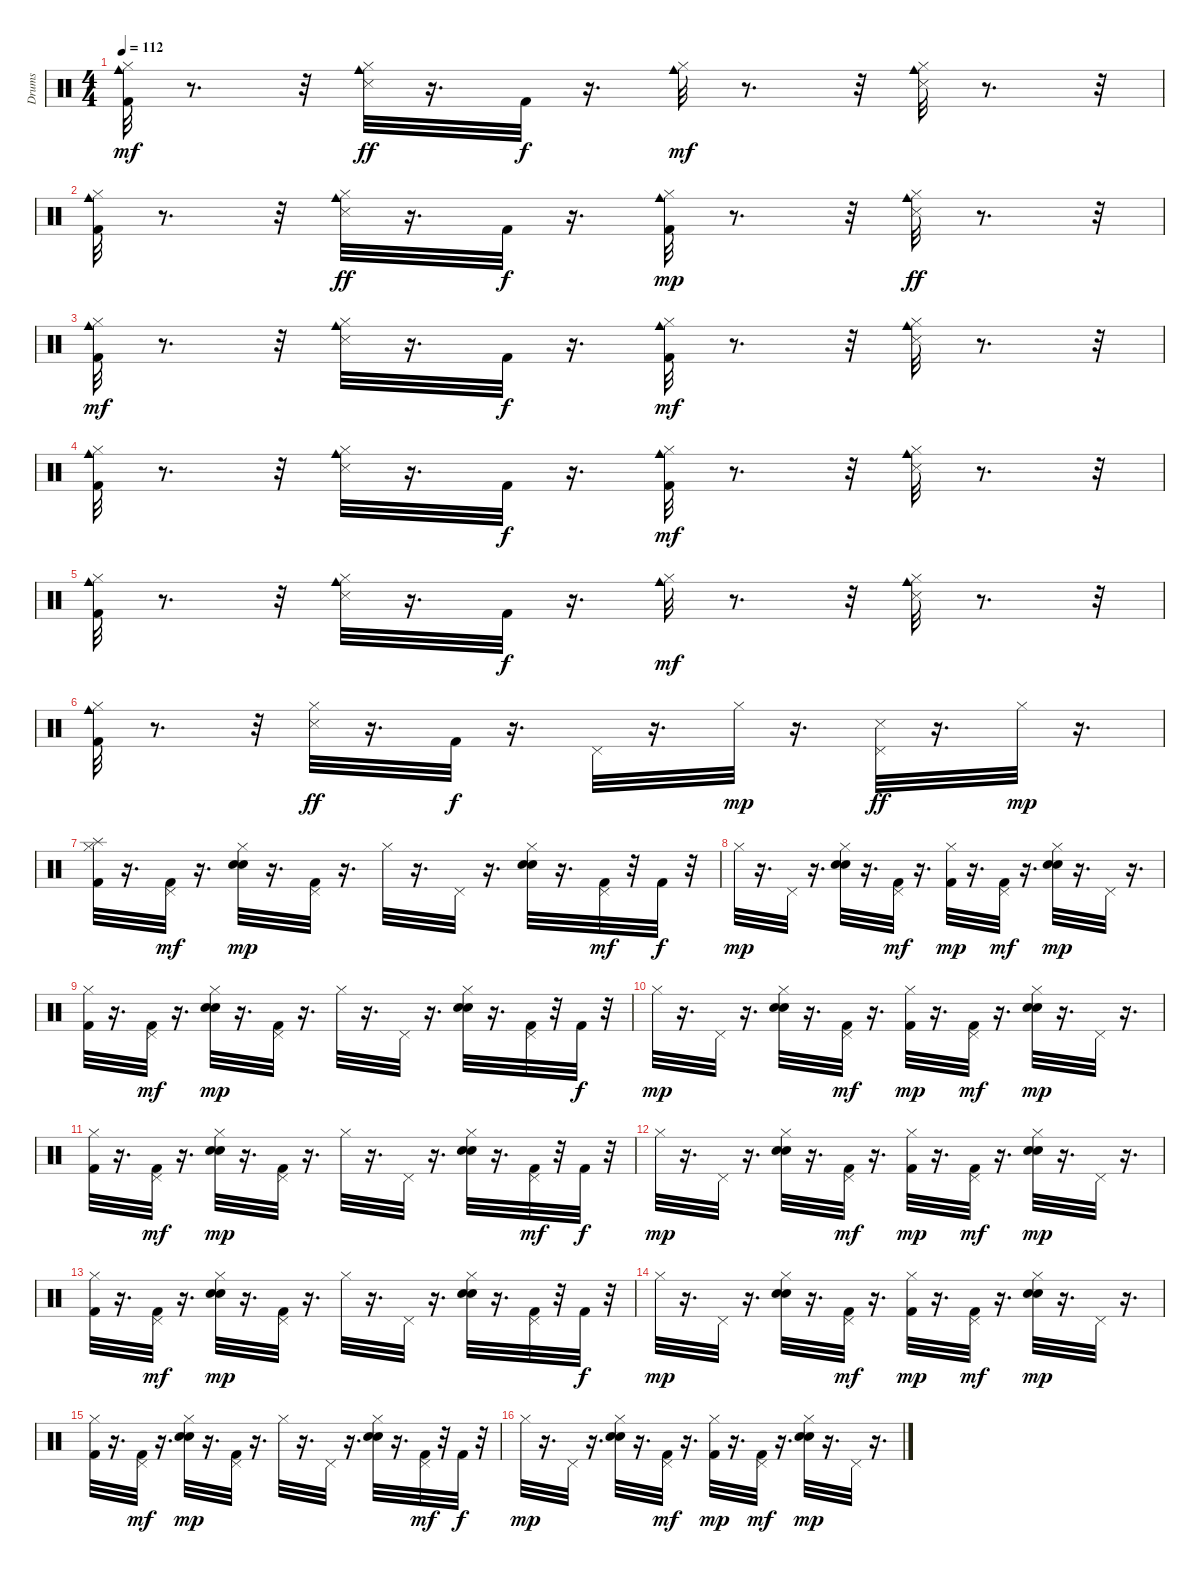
\track ("Drums" "Drums") {instrument percussion}
\staff {score}
\articulation defaults
\ts (4 4)
\tempo 112
\clef neutral
\ks c
("Hi-Hat (closed)" "Kick (hit) 2" "Cowbell medium (hit)").32{dy mf} r.8{d} r.32 ("Hi-Hat (closed)" "Snare (side stick) 3" "Cowbell medium (hit)").32{dy ff} r.16{d} "Kick (hit) 2".32{dy f} r.16{d} ("Hi-Hat (closed)" "Cowbell medium (hit)").32{dy mf} r.8{d} r.32 ("Hi-Hat (closed)" "Snare (side stick) 3" "Cowbell medium (hit)").32 r.8{d} r.32 |
("Hi-Hat (closed)" "Kick (hit) 2" "Cowbell medium (hit)").32 r.8{d} r.32 ("Hi-Hat (closed)" "Snare (side stick) 3" "Cowbell medium (hit)").32{dy ff} r.16{d} "Kick (hit) 2".32{dy f} r.16{d} ("Hi-Hat (closed)" "Kick (hit) 2" "Cowbell medium (hit)").32{dy mp} r.8{d} r.32 ("Hi-Hat (closed)" "Snare (side stick) 3" "Cowbell medium (hit)").32{dy ff} r.8{d} r.32 |
("Hi-Hat (closed)" "Kick (hit) 2" "Cowbell medium (hit)").32{dy mf} r.8{d} r.32 ("Hi-Hat (closed)" "Snare (side stick) 3" "Cowbell medium (hit)").32 r.16{d} "Kick (hit) 2".32{dy f} r.16{d} ("Hi-Hat (closed)" "Kick (hit) 2" "Cowbell medium (hit)").32{dy mf} r.8{d} r.32 ("Hi-Hat (closed)" "Snare (side stick) 3" "Cowbell medium (hit)").32 r.8{d} r.32 |
("Hi-Hat (closed)" "Kick (hit) 2" "Cowbell medium (hit)").32 r.8{d} r.32 ("Hi-Hat (closed)" "Snare (side stick) 3" "Cowbell medium (hit)").32 r.16{d} "Kick (hit) 2".32{dy f} r.16{d} ("Hi-Hat (closed)" "Kick (hit) 2" "Cowbell medium (hit)").32{dy mf} r.8{d} r.32 ("Hi-Hat (closed)" "Snare (side stick) 3" "Cowbell medium (hit)").32 r.8{d} r.32 |
("Hi-Hat (closed)" "Kick (hit) 2" "Cowbell medium (hit)").32 r.8{d} r.32 ("Hi-Hat (closed)" "Snare (side stick) 3" "Cowbell medium (hit)").32 r.16{d} "Kick (hit) 2".32{dy f} r.16{d} ("Hi-Hat (closed)" "Cowbell medium (hit)").32{dy mf} r.8{d} r.32 ("Hi-Hat (closed)" "Snare (side stick) 3" "Cowbell medium (hit)").32 r.8{d} r.32 |
("Hi-Hat (closed)" "Kick (hit) 2" "Cowbell medium (hit)").32 r.8{d} r.32 ("Hi-Hat (closed)" "Snare (side stick) 3").32{dy ff} r.16{d} "Kick (hit) 2".32{dy f} r.16{d} "Pedal Hi-Hat (hit)".32 r.16{d} "Hi-Hat (closed)".32{dy mp} r.16{d} ("Pedal Hi-Hat (hit)" "Snare (side stick) 3").32{dy ff} r.16{d} "Hi-Hat (closed)".32{dy mp} r.16{d} |
("Splash (hit)" "Hi-Hat (closed)" "Kick (hit) 2").32 r.16{d} ("Pedal Hi-Hat (hit)" "Kick (hit) 2").32{dy mf} r.16{d} ("Hi-Hat (closed)" "Electric Snare (hit)" "Hand Clap (hit)").32{dy mp} r.16{d} ("Pedal Hi-Hat (hit)" "Kick (hit) 2").32 r.16{d} "Hi-Hat (closed)".32 r.16{d} "Pedal Hi-Hat (hit)".32 r.16{d} ("Hi-Hat (closed)" "Electric Snare (hit)" "Hand Clap (hit)").32 r.16{d} ("Pedal Hi-Hat (hit)" "Kick (hit) 2").32{dy mf} r.32 "Kick (hit) 2".32{dy f} r.32 |
"Hi-Hat (closed)".32{dy mp} r.16{d} "Pedal Hi-Hat (hit)".32 r.16{d} ("Hi-Hat (closed)" "Electric Snare (hit)" "Hand Clap (hit)").32 r.16{d} ("Pedal Hi-Hat (hit)" "Kick (hit) 2").32{dy mf} r.16{d} ("Hi-Hat (closed)" "Kick (hit) 2").32{dy mp} r.16{d} ("Pedal Hi-Hat (hit)" "Kick (hit) 2").32{dy mf} r.16{d} ("Hi-Hat (closed)" "Electric Snare (hit)" "Hand Clap (hit)").32{dy mp} r.16{d} "Pedal Hi-Hat (hit)".32 r.16{d} |
("Hi-Hat (closed)" "Kick (hit) 2").32 r.16{d} ("Pedal Hi-Hat (hit)" "Kick (hit) 2").32{dy mf} r.16{d} ("Hi-Hat (closed)" "Electric Snare (hit)" "Hand Clap (hit)").32{dy mp} r.16{d} ("Pedal Hi-Hat (hit)" "Kick (hit) 2").32 r.16{d} "Hi-Hat (closed)".32 r.16{d} "Pedal Hi-Hat (hit)".32 r.16{d} ("Hi-Hat (closed)" "Electric Snare (hit)" "Hand Clap (hit)").32 r.16{d} ("Pedal Hi-Hat (hit)" "Kick (hit) 2").32 r.32 "Kick (hit) 2".32{dy f} r.32 |
"Hi-Hat (closed)".32{dy mp} r.16{d} "Pedal Hi-Hat (hit)".32 r.16{d} ("Hi-Hat (closed)" "Electric Snare (hit)" "Hand Clap (hit)").32 r.16{d} ("Pedal Hi-Hat (hit)" "Kick (hit) 2").32{dy mf} r.16{d} ("Hi-Hat (closed)" "Kick (hit) 2").32{dy mp} r.16{d} ("Pedal Hi-Hat (hit)" "Kick (hit) 2").32{dy mf} r.16{d} ("Hi-Hat (closed)" "Electric Snare (hit)" "Hand Clap (hit)").32{dy mp} r.16{d} "Pedal Hi-Hat (hit)".32 r.16{d} |
("Hi-Hat (closed)" "Kick (hit) 2").32 r.16{d} ("Pedal Hi-Hat (hit)" "Kick (hit) 2").32{dy mf} r.16{d} ("Hi-Hat (closed)" "Electric Snare (hit)" "Hand Clap (hit)").32{dy mp} r.16{d} ("Pedal Hi-Hat (hit)" "Kick (hit) 2").32 r.16{d} "Hi-Hat (closed)".32 r.16{d} "Pedal Hi-Hat (hit)".32 r.16{d} ("Hi-Hat (closed)" "Electric Snare (hit)" "Hand Clap (hit)").32 r.16{d} ("Pedal Hi-Hat (hit)" "Kick (hit) 2").32{dy mf} r.32 "Kick (hit) 2".32{dy f} r.32 |
"Hi-Hat (closed)".32{dy mp} r.16{d} "Pedal Hi-Hat (hit)".32 r.16{d} ("Hi-Hat (closed)" "Electric Snare (hit)" "Hand Clap (hit)").32 r.16{d} ("Pedal Hi-Hat (hit)" "Kick (hit) 2").32{dy mf} r.16{d} ("Hi-Hat (closed)" "Kick (hit) 2").32{dy mp} r.16{d} ("Pedal Hi-Hat (hit)" "Kick (hit) 2").32{dy mf} r.16{d} ("Hi-Hat (closed)" "Electric Snare (hit)" "Hand Clap (hit)").32{dy mp} r.16{d} "Pedal Hi-Hat (hit)".32 r.16{d} |
("Hi-Hat (closed)" "Kick (hit) 2").32 r.16{d} ("Pedal Hi-Hat (hit)" "Kick (hit) 2").32{dy mf} r.16{d} ("Hi-Hat (closed)" "Electric Snare (hit)" "Hand Clap (hit)").32{dy mp} r.16{d} ("Pedal Hi-Hat (hit)" "Kick (hit) 2").32 r.16{d} "Hi-Hat (closed)".32 r.16{d} "Pedal Hi-Hat (hit)".32 r.16{d} ("Hi-Hat (closed)" "Electric Snare (hit)" "Hand Clap (hit)").32 r.16{d} ("Pedal Hi-Hat (hit)" "Kick (hit) 2").32 r.32 "Kick (hit) 2".32{dy f} r.32 |
"Hi-Hat (closed)".32{dy mp} r.16{d} "Pedal Hi-Hat (hit)".32 r.16{d} ("Hi-Hat (closed)" "Electric Snare (hit)" "Hand Clap (hit)").32 r.16{d} ("Pedal Hi-Hat (hit)" "Kick (hit) 2").32{dy mf} r.16{d} ("Hi-Hat (closed)" "Kick (hit) 2").32{dy mp} r.16{d} ("Pedal Hi-Hat (hit)" "Kick (hit) 2").32{dy mf} r.16{d} ("Hi-Hat (closed)" "Electric Snare (hit)" "Hand Clap (hit)").32{dy mp} r.16{d} "Pedal Hi-Hat (hit)".32 r.16{d} |
("Hi-Hat (closed)" "Kick (hit) 2").32 r.16{d} ("Pedal Hi-Hat (hit)" "Kick (hit) 2").32{dy mf} r.16{d} ("Hi-Hat (closed)" "Electric Snare (hit)" "Hand Clap (hit)").32{dy mp} r.16{d} ("Pedal Hi-Hat (hit)" "Kick (hit) 2").32 r.16{d} "Hi-Hat (closed)".32 r.16{d} "Pedal Hi-Hat (hit)".32 r.16{d} ("Hi-Hat (closed)" "Electric Snare (hit)" "Hand Clap (hit)").32 r.16{d} ("Pedal Hi-Hat (hit)" "Kick (hit) 2").32{dy mf} r.32 "Kick (hit) 2".32{dy f} r.32 |
"Hi-Hat (closed)".32{dy mp} r.16{d} "Pedal Hi-Hat (hit)".32 r.16{d} ("Hi-Hat (closed)" "Electric Snare (hit)" "Hand Clap (hit)").32 r.16{d} ("Pedal Hi-Hat (hit)" "Kick (hit) 2").32{dy mf} r.16{d} ("Hi-Hat (closed)" "Kick (hit) 2").32{dy mp} r.16{d} ("Pedal Hi-Hat (hit)" "Kick (hit) 2").32{dy mf} r.16{d} ("Hi-Hat (closed)" "Electric Snare (hit)" "Hand Clap (hit)").32{dy mp} r.16{d} "Pedal Hi-Hat (hit)".32 r.16{d}
